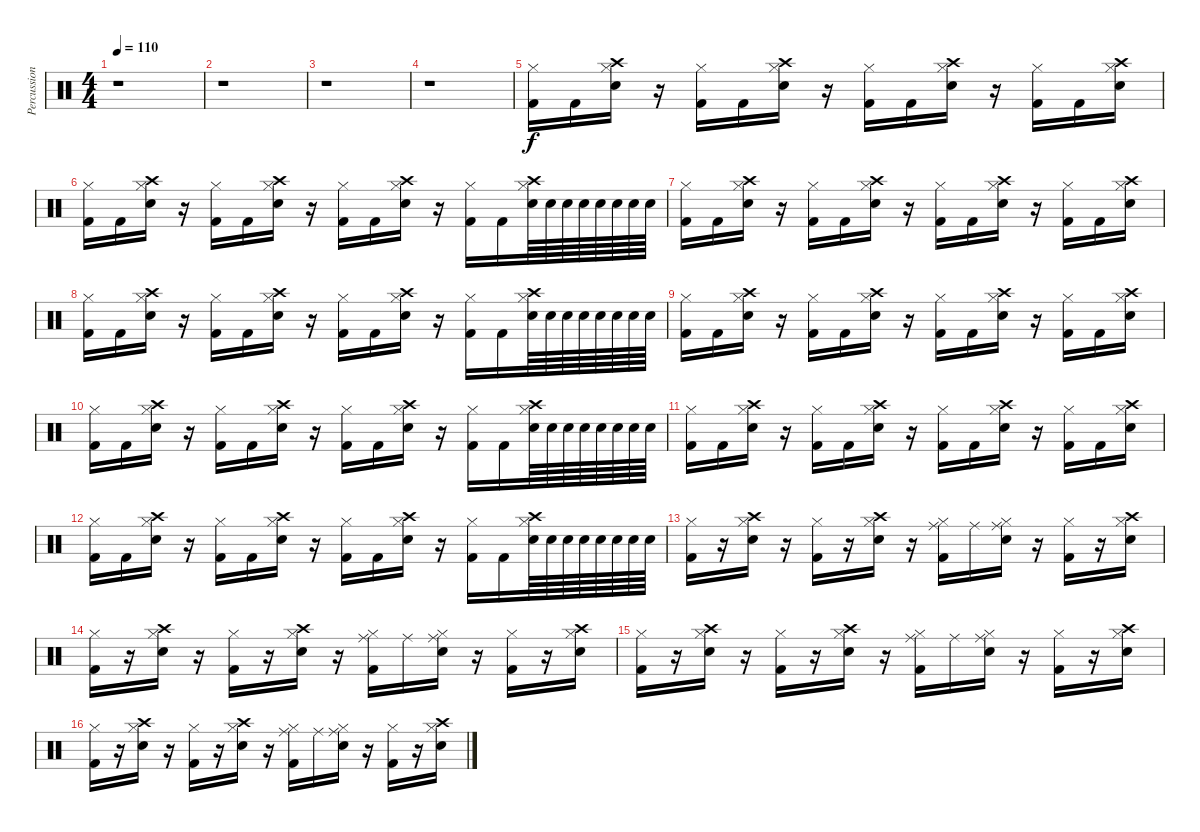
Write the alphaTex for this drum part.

\track ("Percussion" "Percussion") {instrument percussion}
\staff {score}
\articulation defaults
\ts (4 4)
\tempo 110
\clef neutral
\ks c
r.1{dy f} |
r.1 |
r.1 |
r.1 |
("Hi-Hat (closed)" "Kick (hit) 2").16 "Kick (hit) 2".16 ("Hi-Hat (closed)" "Crash high (hit)" "Electric Snare (hit)").16 r.16 ("Hi-Hat (closed)" "Kick (hit) 2").16 "Kick (hit) 2".16 ("Hi-Hat (closed)" "Crash high (hit)" "Electric Snare (hit)").16 r.16 ("Hi-Hat (closed)" "Kick (hit) 2").16 "Kick (hit) 2".16 ("Hi-Hat (closed)" "Crash high (hit)" "Electric Snare (hit)").16 r.16 ("Hi-Hat (closed)" "Kick (hit) 2").16 "Kick (hit) 2".16 ("Hi-Hat (closed)" "Crash high (hit)" "Electric Snare (hit)").16 |
("Hi-Hat (closed)" "Kick (hit) 2").16 "Kick (hit) 2".16 ("Hi-Hat (closed)" "Crash high (hit)" "Electric Snare (hit)").16 r.16 ("Hi-Hat (closed)" "Kick (hit) 2").16 "Kick (hit) 2".16 ("Hi-Hat (closed)" "Crash high (hit)" "Electric Snare (hit)").16 r.16 ("Hi-Hat (closed)" "Kick (hit) 2").16 "Kick (hit) 2".16 ("Hi-Hat (closed)" "Crash high (hit)" "Electric Snare (hit)").16 r.16 ("Hi-Hat (closed)" "Kick (hit) 2").16 "Kick (hit) 2".16 ("Hi-Hat (closed)" "Crash high (hit)" "Electric Snare (hit)").64 "Electric Snare (hit)".64 "Electric Snare (hit)".64 "Electric Snare (hit)".64 "Electric Snare (hit)".64 "Electric Snare (hit)".64 "Electric Snare (hit)".64 "Electric Snare (hit)".64 |
("Hi-Hat (closed)" "Kick (hit) 2").16 "Kick (hit) 2".16 ("Hi-Hat (closed)" "Crash high (hit)" "Electric Snare (hit)").16 r.16 ("Hi-Hat (closed)" "Kick (hit) 2").16 "Kick (hit) 2".16 ("Hi-Hat (closed)" "Crash high (hit)" "Electric Snare (hit)").16 r.16 ("Hi-Hat (closed)" "Kick (hit) 2").16 "Kick (hit) 2".16 ("Hi-Hat (closed)" "Crash high (hit)" "Electric Snare (hit)").16 r.16 ("Hi-Hat (closed)" "Kick (hit) 2").16 "Kick (hit) 2".16 ("Hi-Hat (closed)" "Crash high (hit)" "Electric Snare (hit)").16 |
("Hi-Hat (closed)" "Kick (hit) 2").16 "Kick (hit) 2".16 ("Hi-Hat (closed)" "Crash high (hit)" "Electric Snare (hit)").16 r.16 ("Hi-Hat (closed)" "Kick (hit) 2").16 "Kick (hit) 2".16 ("Hi-Hat (closed)" "Crash high (hit)" "Electric Snare (hit)").16 r.16 ("Hi-Hat (closed)" "Kick (hit) 2").16 "Kick (hit) 2".16 ("Hi-Hat (closed)" "Crash high (hit)" "Electric Snare (hit)").16 r.16 ("Hi-Hat (closed)" "Kick (hit) 2").16 "Kick (hit) 2".16 ("Hi-Hat (closed)" "Crash high (hit)" "Electric Snare (hit)").64 "Electric Snare (hit)".64 "Electric Snare (hit)".64 "Electric Snare (hit)".64 "Electric Snare (hit)".64 "Electric Snare (hit)".64 "Electric Snare (hit)".64 "Electric Snare (hit)".64 |
("Hi-Hat (closed)" "Kick (hit) 2").16 "Kick (hit) 2".16 ("Hi-Hat (closed)" "Crash high (hit)" "Electric Snare (hit)").16 r.16 ("Hi-Hat (closed)" "Kick (hit) 2").16 "Kick (hit) 2".16 ("Hi-Hat (closed)" "Crash high (hit)" "Electric Snare (hit)").16 r.16 ("Hi-Hat (closed)" "Kick (hit) 2").16 "Kick (hit) 2".16 ("Hi-Hat (closed)" "Crash high (hit)" "Electric Snare (hit)").16 r.16 ("Hi-Hat (closed)" "Kick (hit) 2").16 "Kick (hit) 2".16 ("Hi-Hat (closed)" "Crash high (hit)" "Electric Snare (hit)").16 |
("Hi-Hat (closed)" "Kick (hit) 2").16 "Kick (hit) 2".16 ("Hi-Hat (closed)" "Crash high (hit)" "Electric Snare (hit)").16 r.16 ("Hi-Hat (closed)" "Kick (hit) 2").16 "Kick (hit) 2".16 ("Hi-Hat (closed)" "Crash high (hit)" "Electric Snare (hit)").16 r.16 ("Hi-Hat (closed)" "Kick (hit) 2").16 "Kick (hit) 2".16 ("Hi-Hat (closed)" "Crash high (hit)" "Electric Snare (hit)").16 r.16 ("Hi-Hat (closed)" "Kick (hit) 2").16 "Kick (hit) 2".16 ("Hi-Hat (closed)" "Crash high (hit)" "Electric Snare (hit)").64 "Electric Snare (hit)".64 "Electric Snare (hit)".64 "Electric Snare (hit)".64 "Electric Snare (hit)".64 "Electric Snare (hit)".64 "Electric Snare (hit)".64 "Electric Snare (hit)".64 |
("Hi-Hat (closed)" "Kick (hit) 2").16 "Kick (hit) 2".16 ("Hi-Hat (closed)" "Crash high (hit)" "Electric Snare (hit)").16 r.16 ("Hi-Hat (closed)" "Kick (hit) 2").16 "Kick (hit) 2".16 ("Hi-Hat (closed)" "Crash high (hit)" "Electric Snare (hit)").16 r.16 ("Hi-Hat (closed)" "Kick (hit) 2").16 "Kick (hit) 2".16 ("Hi-Hat (closed)" "Crash high (hit)" "Electric Snare (hit)").16 r.16 ("Hi-Hat (closed)" "Kick (hit) 2").16 "Kick (hit) 2".16 ("Hi-Hat (closed)" "Crash high (hit)" "Electric Snare (hit)").16 |
("Hi-Hat (closed)" "Kick (hit) 2").16 "Kick (hit) 2".16 ("Hi-Hat (closed)" "Crash high (hit)" "Electric Snare (hit)").16 r.16 ("Hi-Hat (closed)" "Kick (hit) 2").16 "Kick (hit) 2".16 ("Hi-Hat (closed)" "Crash high (hit)" "Electric Snare (hit)").16 r.16 ("Hi-Hat (closed)" "Kick (hit) 2").16 "Kick (hit) 2".16 ("Hi-Hat (closed)" "Crash high (hit)" "Electric Snare (hit)").16 r.16 ("Hi-Hat (closed)" "Kick (hit) 2").16 "Kick (hit) 2".16 ("Hi-Hat (closed)" "Crash high (hit)" "Electric Snare (hit)").64 "Electric Snare (hit)".64 "Electric Snare (hit)".64 "Electric Snare (hit)".64 "Electric Snare (hit)".64 "Electric Snare (hit)".64 "Electric Snare (hit)".64 "Electric Snare (hit)".64 |
("Hi-Hat (closed)" "Kick (hit) 2").16 r.16 ("Hi-Hat (closed)" "Crash high (hit)" "Electric Snare (hit)").16 r.16 ("Hi-Hat (closed)" "Kick (hit) 2").16 r.16 ("Hi-Hat (closed)" "Crash high (hit)" "Electric Snare (hit)").16 r.16 ("Hi-Hat (closed)" "Ride (middle)" "Kick (hit) 2").16 "Ride (middle)".16 ("Hi-Hat (closed)" "Ride (middle)" "Electric Snare (hit)").16 r.16 ("Hi-Hat (closed)" "Kick (hit) 2").16 r.16 ("Hi-Hat (closed)" "Crash high (hit)" "Electric Snare (hit)").16 |
("Hi-Hat (closed)" "Kick (hit) 2").16 r.16 ("Hi-Hat (closed)" "Crash high (hit)" "Electric Snare (hit)").16 r.16 ("Hi-Hat (closed)" "Kick (hit) 2").16 r.16 ("Hi-Hat (closed)" "Crash high (hit)" "Electric Snare (hit)").16 r.16 ("Hi-Hat (closed)" "Ride (middle)" "Kick (hit) 2").16 "Ride (middle)".16 ("Hi-Hat (closed)" "Ride (middle)" "Electric Snare (hit)").16 r.16 ("Hi-Hat (closed)" "Kick (hit) 2").16 r.16 ("Hi-Hat (closed)" "Crash high (hit)" "Electric Snare (hit)").16 |
("Hi-Hat (closed)" "Kick (hit) 2").16 r.16 ("Hi-Hat (closed)" "Crash high (hit)" "Electric Snare (hit)").16 r.16 ("Hi-Hat (closed)" "Kick (hit) 2").16 r.16 ("Hi-Hat (closed)" "Crash high (hit)" "Electric Snare (hit)").16 r.16 ("Hi-Hat (closed)" "Ride (middle)" "Kick (hit) 2").16 "Ride (middle)".16 ("Hi-Hat (closed)" "Ride (middle)" "Electric Snare (hit)").16 r.16 ("Hi-Hat (closed)" "Kick (hit) 2").16 r.16 ("Hi-Hat (closed)" "Crash high (hit)" "Electric Snare (hit)").16 |
("Hi-Hat (closed)" "Kick (hit) 2").16 r.16 ("Hi-Hat (closed)" "Crash high (hit)" "Electric Snare (hit)").16 r.16 ("Hi-Hat (closed)" "Kick (hit) 2").16 r.16 ("Hi-Hat (closed)" "Crash high (hit)" "Electric Snare (hit)").16 r.16 ("Hi-Hat (closed)" "Ride (middle)" "Kick (hit) 2").16 "Ride (middle)".16 ("Hi-Hat (closed)" "Ride (middle)" "Electric Snare (hit)").16 r.16 ("Hi-Hat (closed)" "Kick (hit) 2").16 r.16 ("Hi-Hat (closed)" "Crash high (hit)" "Electric Snare (hit)").16
